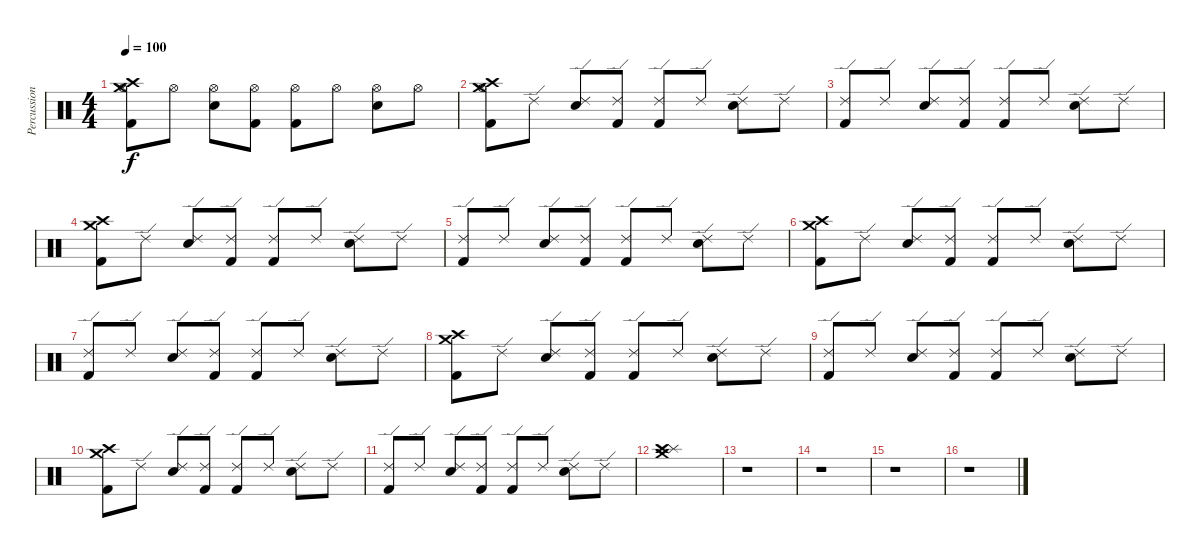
\track ("Percussion" "Percussion") {instrument percussion}
\staff {score}
\articulation defaults
\ts (4 4)
\tempo 100
\clef neutral
\ks c
("Crash high (hit)" "Crash medium (hit)" "Kick (hit) 2" "Hi-Hat (open)").8{dy f} "Hi-Hat (open)".8 ("Hi-Hat (open)" "Electric Snare (hit)").8 ("Hi-Hat (open)" "Kick (hit) 2").8 ("Hi-Hat (open)" "Kick (hit) 2").8 "Hi-Hat (open)".8 ("Hi-Hat (open)" "Electric Snare (hit)").8 "Hi-Hat (open)".8 |
("Crash high (hit)" "Crash medium (hit)" "Kick (hit) 2" "Hi-Hat (open)").8 "Ride (edge) 2".8 ("Ride (edge) 2" "Electric Snare (hit)").8 ("Ride (edge) 2" "Kick (hit) 2").8 ("Ride (edge) 2" "Kick (hit) 2").8 "Ride (edge) 2".8 ("Ride (edge) 2" "Electric Snare (hit)").8 "Ride (edge) 2".8 |
("Kick (hit) 2" "Ride (edge) 2").8 "Ride (edge) 2".8 ("Ride (edge) 2" "Electric Snare (hit)").8 ("Ride (edge) 2" "Kick (hit) 2").8 ("Ride (edge) 2" "Kick (hit) 2").8 "Ride (edge) 2".8 ("Ride (edge) 2" "Electric Snare (hit)").8 "Ride (edge) 2".8 |
("Crash high (hit)" "Crash medium (hit)" "Kick (hit) 2").8 "Ride (edge) 2".8 ("Ride (edge) 2" "Electric Snare (hit)").8 ("Ride (edge) 2" "Kick (hit) 2").8 ("Ride (edge) 2" "Kick (hit) 2").8 "Ride (edge) 2".8 ("Ride (edge) 2" "Electric Snare (hit)").8 "Ride (edge) 2".8 |
("Kick (hit) 2" "Ride (edge) 2").8 "Ride (edge) 2".8 ("Ride (edge) 2" "Electric Snare (hit)").8 ("Ride (edge) 2" "Kick (hit) 2").8 ("Ride (edge) 2" "Kick (hit) 2").8 "Ride (edge) 2".8 ("Ride (edge) 2" "Electric Snare (hit)").8 "Ride (edge) 2".8 |
("Crash high (hit)" "Crash medium (hit)" "Kick (hit) 2").8 "Ride (edge) 2".8 ("Ride (edge) 2" "Electric Snare (hit)").8 ("Ride (edge) 2" "Kick (hit) 2").8 ("Ride (edge) 2" "Kick (hit) 2").8 "Ride (edge) 2".8 ("Ride (edge) 2" "Electric Snare (hit)").8 "Ride (edge) 2".8 |
("Kick (hit) 2" "Ride (edge) 2").8 "Ride (edge) 2".8 ("Ride (edge) 2" "Electric Snare (hit)").8 ("Ride (edge) 2" "Kick (hit) 2").8 ("Ride (edge) 2" "Kick (hit) 2").8 "Ride (edge) 2".8 ("Ride (edge) 2" "Electric Snare (hit)").8 "Ride (edge) 2".8 |
("Crash high (hit)" "Crash medium (hit)" "Kick (hit) 2").8 "Ride (edge) 2".8 ("Ride (edge) 2" "Electric Snare (hit)").8 ("Ride (edge) 2" "Kick (hit) 2").8 ("Ride (edge) 2" "Kick (hit) 2").8 "Ride (edge) 2".8 ("Ride (edge) 2" "Electric Snare (hit)").8 "Ride (edge) 2".8 |
("Kick (hit) 2" "Ride (edge) 2").8 "Ride (edge) 2".8 ("Ride (edge) 2" "Electric Snare (hit)").8 ("Ride (edge) 2" "Kick (hit) 2").8 ("Ride (edge) 2" "Kick (hit) 2").8 "Ride (edge) 2".8 ("Ride (edge) 2" "Electric Snare (hit)").8 "Ride (edge) 2".8 |
("Crash high (hit)" "Crash medium (hit)" "Kick (hit) 2").8 "Ride (edge) 2".8 ("Ride (edge) 2" "Electric Snare (hit)").8 ("Ride (edge) 2" "Kick (hit) 2").8 ("Ride (edge) 2" "Kick (hit) 2").8 "Ride (edge) 2".8 ("Ride (edge) 2" "Electric Snare (hit)").8 "Ride (edge) 2".8 |
("Kick (hit) 2" "Ride (edge) 2").8 "Ride (edge) 2".8 ("Ride (edge) 2" "Electric Snare (hit)").8 ("Ride (edge) 2" "Kick (hit) 2").8 ("Ride (edge) 2" "Kick (hit) 2").8 "Ride (edge) 2".8 ("Ride (edge) 2" "Electric Snare (hit)").8 "Ride (edge) 2".8 |
("Splash (hit)" "Crash high (hit)" "Crash medium (hit)").1 |
r.1 |
r.1 |
r.1 |
r.1
